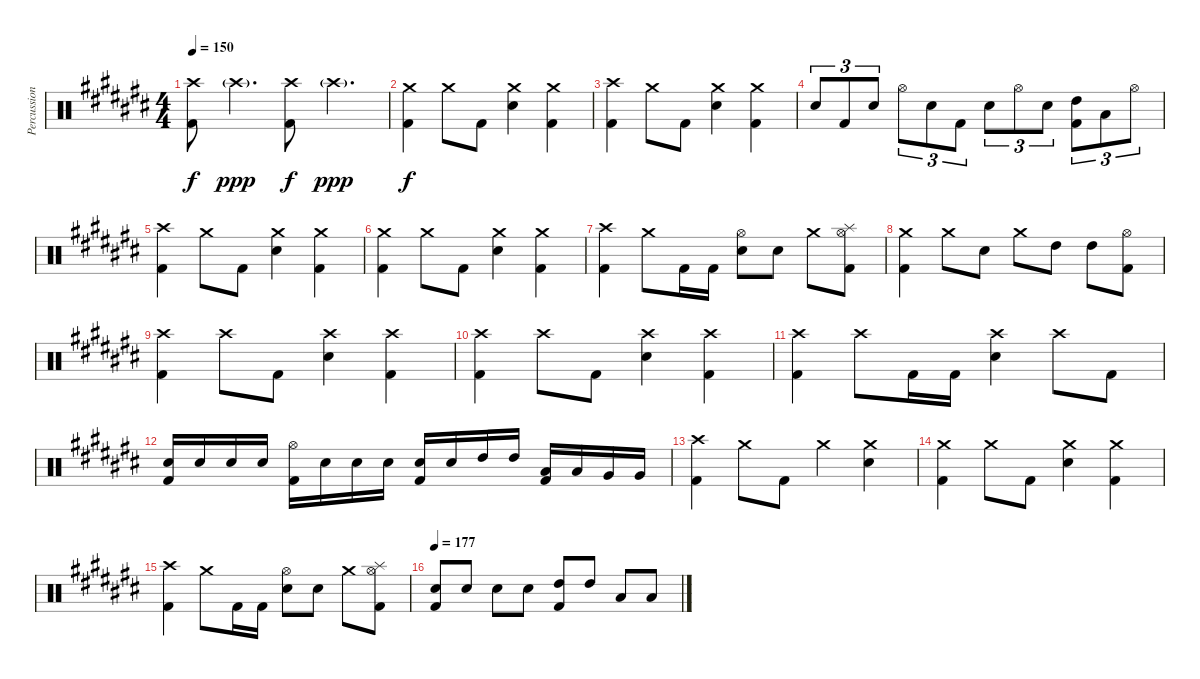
\track ("Percussion" "Percussion") {instrument percussion}
\staff {score}
\articulation defaults
\ts (4 4)
\tempo 150
\clef neutral
\ks c#
("Crash high (hit)" "Kick (hit) 2").8{dy f} "Crash high (hit)"{g}.4{d dy ppp} ("Crash high (hit)" "Kick (hit) 2").8{dy f} "Crash high (hit)"{g}.4{d dy ppp} |
("Crash medium (hit)" "Kick (hit) 2").4{dy f} "Crash medium (hit)".8 "Kick (hit) 2".8 ("Crash medium (hit)" "Electric Snare (hit)").4 ("Crash medium (hit)" "Kick (hit) 2").4 |
("Crash high (hit)" "Kick (hit) 2").4 "Crash medium (hit)".8 "Kick (hit) 2".8 ("Crash medium (hit)" "Electric Snare (hit)").4 ("Crash medium (hit)" "Kick (hit) 2").4 |
"Electric Snare (hit)".8{tu (3 2)} "Kick (hit) 2".8{tu (3 2)} "Electric Snare (hit)".8{tu (3 2)} "Hi-Hat (open)".8{tu (3 2)} "Electric Snare (hit)".8{tu (3 2)} "Kick (hit) 2".8{tu (3 2)} "Electric Snare (hit)".8{tu (3 2)} "Hi-Hat (open)".8{tu (3 2)} "Electric Snare (hit)".8{tu (3 2)} ("High Tom (hit)" "Kick (hit) 2").8{tu (3 2)} "Low Tom (hit)".8{tu (3 2)} "Hi-Hat (open)".8{tu (3 2)} |
("Crash high (hit)" "Kick (hit) 2").4 "Crash medium (hit)".8 "Kick (hit) 2".8 ("Crash medium (hit)" "Electric Snare (hit)").4 ("Crash medium (hit)" "Kick (hit) 2").4 |
("Crash medium (hit)" "Kick (hit) 2").4 "Crash medium (hit)".8 "Kick (hit) 2".8 ("Crash medium (hit)" "Electric Snare (hit)").4 ("Crash medium (hit)" "Kick (hit) 2").4 |
("Crash high (hit)" "Kick (hit) 2").4 "Crash medium (hit)".8 "Kick (hit) 2".16 "Kick (hit) 2".16 ("Hi-Hat (open)" "Electric Snare (hit)").8 "Electric Snare (hit)".8 "Crash medium (hit)".8 ("Hi-Hat (open)" "Splash (hit)" "Kick (hit) 2").8 |
("Crash medium (hit)" "Kick (hit) 2").4 "Crash medium (hit)".8 "Electric Snare (hit)".8 "Crash medium (hit)".8 "High Tom (hit)".8 "High Tom (hit)".8 ("Hi-Hat (open)" "Kick (hit) 2").8 |
("Crash high (hit)" "Kick (hit) 2").4 "Crash high (hit)".8 "Kick (hit) 2".8 ("Crash high (hit)" "Electric Snare (hit)").4 ("Crash high (hit)" "Kick (hit) 2").4 |
("Crash high (hit)" "Kick (hit) 2").4 "Crash high (hit)".8 "Kick (hit) 2".8 ("Crash high (hit)" "Electric Snare (hit)").4 ("Crash high (hit)" "Kick (hit) 2").4 |
("Crash high (hit)" "Kick (hit) 2").4 "Crash high (hit)".8 "Kick (hit) 2".16 "Kick (hit) 2".16 ("Crash high (hit)" "Electric Snare (hit)").4 "Crash high (hit)".8 "Kick (hit) 2".8 |
("Electric Snare (hit)" "Kick (hit) 2").16 "Electric Snare (hit)".16 "Electric Snare (hit)".16 "Electric Snare (hit)".16 ("Hi-Hat (open)" "Kick (hit) 2").16 "Electric Snare (hit)".16 "Electric Snare (hit)".16 "Electric Snare (hit)".16 ("Electric Snare (hit)" "Kick (hit) 2").16 "Electric Snare (hit)".16 "High Tom (hit)".16 "High Tom (hit)".16 ("Low Tom (hit)" "Kick (hit) 2").16 "Low Tom (hit)".16 "Very Low Tom (hit)".16 "Very Low Tom (hit)".16 |
("Crash high (hit)" "Kick (hit) 2").4 "Crash medium (hit)".8 "Kick (hit) 2".8 "Crash medium (hit)".4 ("Crash medium (hit)" "Electric Snare (hit)").4 |
("Crash medium (hit)" "Kick (hit) 2").4 "Crash medium (hit)".8 "Kick (hit) 2".8 ("Crash medium (hit)" "Electric Snare (hit)").4 ("Crash medium (hit)" "Kick (hit) 2").4 |
("Crash high (hit)" "Kick (hit) 2").4 "Crash medium (hit)".8 "Kick (hit) 2".16 "Kick (hit) 2".16 ("Hi-Hat (open)" "Electric Snare (hit)").8 "Electric Snare (hit)".8 "Crash medium (hit)".8 ("Hi-Hat (open)" "Splash (hit)" "Kick (hit) 2").8 |
\tempo 177
("Electric Snare (hit)" "Kick (hit) 2").8 "Electric Snare (hit)".8 "Electric Snare (hit)".8 "Electric Snare (hit)".8 ("High Tom (hit)" "Kick (hit) 2").8 "High Tom (hit)".8 "Low Tom (hit)".8 "Low Tom (hit)".8
